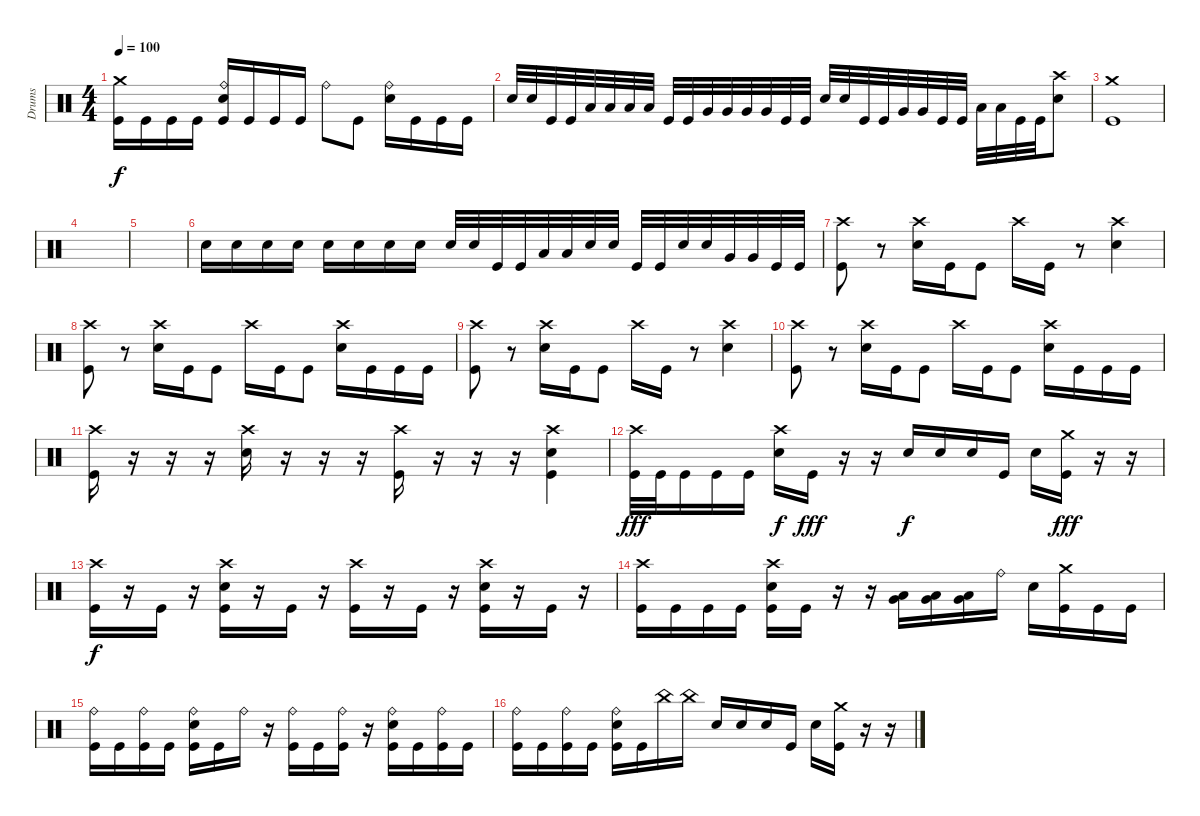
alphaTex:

\track ("Drums" "Drums") {instrument percussion}
\staff {score}
\articulation defaults
\ts (4 4)
\tempo 100
\clef neutral
\ks c
("Crash medium (hit)" "Kick (hit)").16{dy f} "Kick (hit)".16 "Kick (hit)".16 "Kick (hit)".16 ("Ride (bell)" "Electric Snare (hit)" "Kick (hit)").16 "Kick (hit)".16 "Kick (hit)".16 "Kick (hit)".16 "Ride (bell)".8 "Kick (hit)".8 ("Ride (bell)" "Electric Snare (hit)").16 "Kick (hit)".16 "Kick (hit)".16 "Kick (hit)".16 |
"Electric Snare (hit)".32 "Electric Snare (hit)".32 "Kick (hit)".32 "Kick (hit)".32 "Low Tom (hit)".32 "Low Tom (hit)".32 "Low Tom (hit)".32 "Low Tom (hit)".32 "Kick (hit)".32 "Kick (hit)".32 "Very Low Tom (hit)".32 "Very Low Tom (hit)".32 "Very Low Tom (hit)".32 "Very Low Tom (hit)".32 "Kick (hit)".32 "Kick (hit)".32 "Electric Snare (hit)".32 "Electric Snare (hit)".32 "Kick (hit)".32 "Kick (hit)".32 "Very Low Tom (hit)".32 "Very Low Tom (hit)".32 "Kick (hit)".32 "Kick (hit)".32 "Low Tom (hit)".32 "Low Tom (hit)".32 "Kick (hit)".32 "Kick (hit)".32 ("Crash high (hit)" "Electric Snare (hit)").8 |
("Crash medium (hit)" "Kick (hit)").1 |
|
|
"Electric Snare (hit)".16 "Electric Snare (hit)".16 "Electric Snare (hit)".16 "Electric Snare (hit)".16 "Electric Snare (hit)".16 "Electric Snare (hit)".16 "Electric Snare (hit)".16 "Electric Snare (hit)".16 "Electric Snare (hit)".32 "Electric Snare (hit)".32 "Kick (hit)".32 "Kick (hit)".32 "Low Tom (hit)".32 "Low Tom (hit)".32 "Electric Snare (hit)".32 "Electric Snare (hit)".32 "Kick (hit)".32 "Kick (hit)".32 "Electric Snare (hit)".32 "Electric Snare (hit)".32 "Very Low Tom (hit)".32 "Very Low Tom (hit)".32 "Kick (hit)".32 "Kick (hit)".32 |
("Crash high (hit)" "Kick (hit)").8 r.8 ("Crash high (hit)" "Electric Snare (hit)").16 "Kick (hit)".16 "Kick (hit)".8 "Crash high (hit)".16 "Kick (hit)".16 r.8 ("Crash high (hit)" "Electric Snare (hit)").4 |
("Crash high (hit)" "Kick (hit)").8 r.8 ("Crash high (hit)" "Electric Snare (hit)").16 "Kick (hit)".16 "Kick (hit)".8 "Crash high (hit)".16 "Kick (hit)".16 "Kick (hit)".8 ("Crash high (hit)" "Electric Snare (hit)").16 "Kick (hit)".16 "Kick (hit)".16 "Kick (hit)".16 |
("Crash high (hit)" "Kick (hit)").8 r.8 ("Crash high (hit)" "Electric Snare (hit)").16 "Kick (hit)".16 "Kick (hit)".8 "Crash high (hit)".16 "Kick (hit)".16 r.8 ("Crash high (hit)" "Electric Snare (hit)").4 |
("Crash high (hit)" "Kick (hit)").8 r.8 ("Crash high (hit)" "Electric Snare (hit)").16 "Kick (hit)".16 "Kick (hit)".8 "Crash high (hit)".16 "Kick (hit)".16 "Kick (hit)".8 ("Crash high (hit)" "Electric Snare (hit)").16 "Kick (hit)".16 "Kick (hit)".16 "Kick (hit)".16 |
("Crash high (hit)" "Kick (hit)").16 r.16 r.16 r.16 ("Crash high (hit)" "Electric Snare (hit)").16 r.16 r.16 r.16 ("Crash high (hit)" "Kick (hit)").16 r.16 r.16 r.16 ("Crash high (hit)" "Electric Snare (hit)" "Kick (hit)").4 |
("Crash high (hit)" "Kick (hit)").32{dy fff} "Kick (hit)".32 "Kick (hit)".16 "Kick (hit)".16 "Kick (hit)".16 ("Crash high (hit)" "Electric Snare (hit)").16{dy f} "Kick (hit)".16{dy fff} r.16 r.16 "Electric Snare (hit)".16{dy f} "Electric Snare (hit)".16 "Electric Snare (hit)".16 "Kick (hit)".16 "Electric Snare (hit)".16 ("Crash medium (hit)" "Kick (hit)").16{dy fff} r.16 r.16 |
("Crash high (hit)" "Kick (hit)").16{dy f} r.16 "Kick (hit)".16 r.16 ("Crash high (hit)" "Electric Snare (hit)" "Kick (hit)").16 r.16 "Kick (hit)".16 r.16 ("Crash high (hit)" "Kick (hit)").16 r.16 "Kick (hit)".16 r.16 ("Crash high (hit)" "Electric Snare (hit)" "Kick (hit)").16 r.16 "Kick (hit)".16 r.16 |
("Crash high (hit)" "Kick (hit)").16 "Kick (hit)".16 "Kick (hit)".16 "Kick (hit)".16 ("Crash high (hit)" "Electric Snare (hit)" "Kick (hit)").16 "Kick (hit)".16 r.16 r.16 ("Low Tom (hit)" "Very Low Tom (hit)").16 ("Low Tom (hit)" "Very Low Tom (hit)").16 ("Low Tom (hit)" "Very Low Tom (hit)").16 "Ride (bell)".16 "Electric Snare (hit)".16 ("Crash medium (hit)" "Kick (hit)").16 "Kick (hit)".16 "Kick (hit)".16 |
("Ride (bell)" "Kick (hit)").16 "Kick (hit)".16 ("Ride (bell)" "Kick (hit)").16 "Kick (hit)".16 ("Ride (bell)" "Electric Snare (hit)" "Kick (hit)").16 "Kick (hit)".16 "Ride (bell)".16 r.16 ("Ride (bell)" "Kick (hit)").16 "Kick (hit)".16 ("Ride (bell)" "Kick (hit)").16 r.16 ("Ride (bell)" "Electric Snare (hit)" "Kick (hit)").16 "Kick (hit)".16 ("Ride (bell)" "Kick (hit)").16 "Kick (hit)".16 |
("Ride (bell)" "Kick (hit)").16 "Kick (hit)".16 ("Ride (bell)" "Kick (hit)").16 "Kick (hit)".16 ("Ride (bell)" "Electric Snare (hit)" "Kick (hit)").16 "Kick (hit)".16 "China (hit)".16 "China (hit)".16 "Electric Snare (hit)".16 "Electric Snare (hit)".16 "Electric Snare (hit)".16 "Kick (hit)".16 "Electric Snare (hit)".16 ("Crash medium (hit)" "Kick (hit)").16 r.16 r.16
